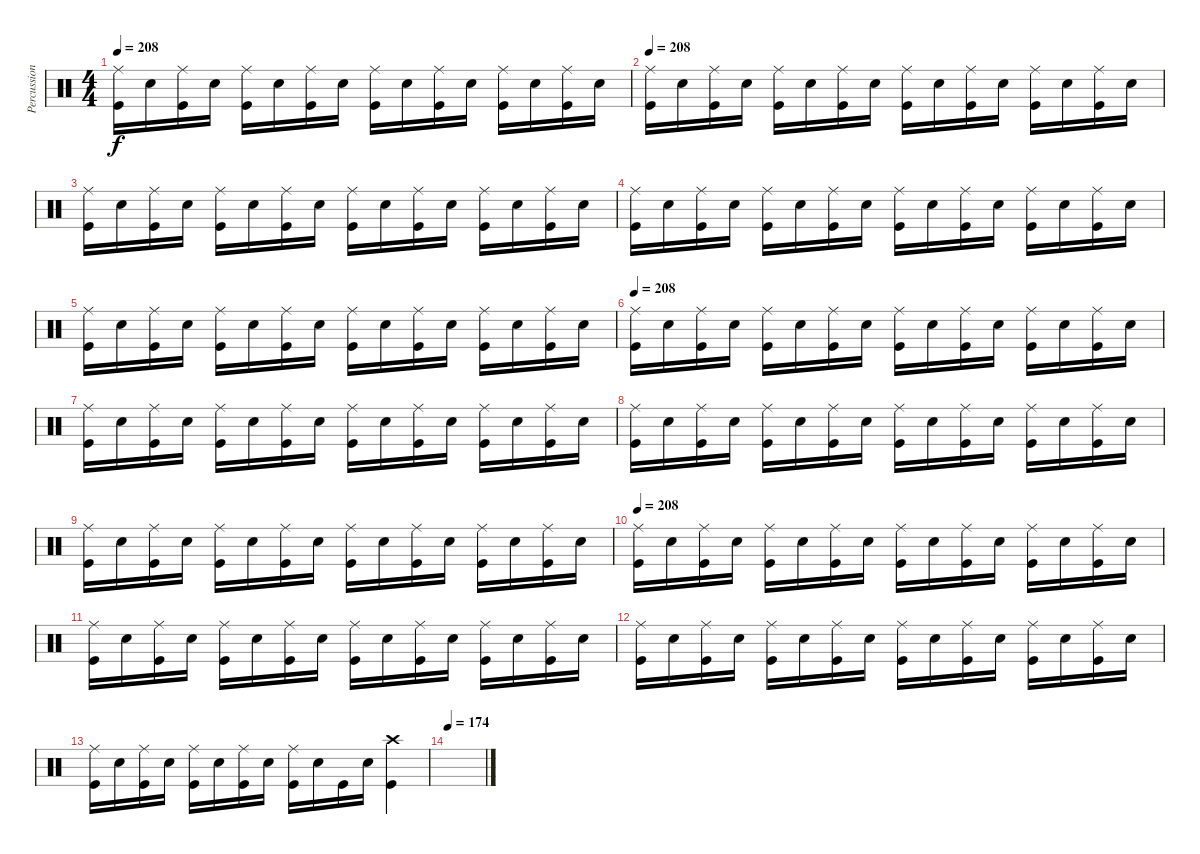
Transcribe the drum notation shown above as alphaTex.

\track ("Percussion" "Percussion") {instrument percussion}
\staff {score}
\articulation defaults
\ts (4 4)
\tempo 208
\clef neutral
\ks c
("Ride (middle)" "Kick (hit)").16{dy f} "Electric Snare (hit)".16 ("Ride (middle)" "Kick (hit)").16 "Electric Snare (hit)".16 ("Ride (middle)" "Kick (hit)").16 "Electric Snare (hit)".16 ("Ride (middle)" "Kick (hit)").16 "Electric Snare (hit)".16 ("Ride (middle)" "Kick (hit)").16 "Electric Snare (hit)".16 ("Ride (middle)" "Kick (hit)").16 "Electric Snare (hit)".16 ("Ride (middle)" "Kick (hit)").16 "Electric Snare (hit)".16 ("Ride (middle)" "Kick (hit)").16 "Electric Snare (hit)".16 |
\tempo 208
("Ride (middle)" "Kick (hit)").16 "Electric Snare (hit)".16 ("Ride (middle)" "Kick (hit)").16 "Electric Snare (hit)".16 ("Ride (middle)" "Kick (hit)").16 "Electric Snare (hit)".16 ("Ride (middle)" "Kick (hit)").16 "Electric Snare (hit)".16 ("Ride (middle)" "Kick (hit)").16 "Electric Snare (hit)".16 ("Ride (middle)" "Kick (hit)").16 "Electric Snare (hit)".16 ("Ride (middle)" "Kick (hit)").16 "Electric Snare (hit)".16 ("Ride (middle)" "Kick (hit)").16 "Electric Snare (hit)".16 |
("Ride (middle)" "Kick (hit)").16 "Electric Snare (hit)".16 ("Ride (middle)" "Kick (hit)").16 "Electric Snare (hit)".16 ("Ride (middle)" "Kick (hit)").16 "Electric Snare (hit)".16 ("Ride (middle)" "Kick (hit)").16 "Electric Snare (hit)".16 ("Ride (middle)" "Kick (hit)").16 "Electric Snare (hit)".16 ("Ride (middle)" "Kick (hit)").16 "Electric Snare (hit)".16 ("Ride (middle)" "Kick (hit)").16 "Electric Snare (hit)".16 ("Ride (middle)" "Kick (hit)").16 "Electric Snare (hit)".16 |
("Ride (middle)" "Kick (hit)").16 "Electric Snare (hit)".16 ("Ride (middle)" "Kick (hit)").16 "Electric Snare (hit)".16 ("Ride (middle)" "Kick (hit)").16 "Electric Snare (hit)".16 ("Ride (middle)" "Kick (hit)").16 "Electric Snare (hit)".16 ("Ride (middle)" "Kick (hit)").16 "Electric Snare (hit)".16 ("Ride (middle)" "Kick (hit)").16 "Electric Snare (hit)".16 ("Ride (middle)" "Kick (hit)").16 "Electric Snare (hit)".16 ("Ride (middle)" "Kick (hit)").16 "Electric Snare (hit)".16 |
("Ride (middle)" "Kick (hit)").16 "Electric Snare (hit)".16 ("Ride (middle)" "Kick (hit)").16 "Electric Snare (hit)".16 ("Ride (middle)" "Kick (hit)").16 "Electric Snare (hit)".16 ("Ride (middle)" "Kick (hit)").16 "Electric Snare (hit)".16 ("Ride (middle)" "Kick (hit)").16 "Electric Snare (hit)".16 ("Ride (middle)" "Kick (hit)").16 "Electric Snare (hit)".16 ("Ride (middle)" "Kick (hit)").16 "Electric Snare (hit)".16 ("Ride (middle)" "Kick (hit)").16 "Electric Snare (hit)".16 |
\tempo 208
("Ride (middle)" "Kick (hit)").16 "Electric Snare (hit)".16 ("Ride (middle)" "Kick (hit)").16 "Electric Snare (hit)".16 ("Ride (middle)" "Kick (hit)").16 "Electric Snare (hit)".16 ("Ride (middle)" "Kick (hit)").16 "Electric Snare (hit)".16 ("Ride (middle)" "Kick (hit)").16 "Electric Snare (hit)".16 ("Ride (middle)" "Kick (hit)").16 "Electric Snare (hit)".16 ("Ride (middle)" "Kick (hit)").16 "Electric Snare (hit)".16 ("Ride (middle)" "Kick (hit)").16 "Electric Snare (hit)".16 |
("Ride (middle)" "Kick (hit)").16 "Electric Snare (hit)".16 ("Ride (middle)" "Kick (hit)").16 "Electric Snare (hit)".16 ("Ride (middle)" "Kick (hit)").16 "Electric Snare (hit)".16 ("Ride (middle)" "Kick (hit)").16 "Electric Snare (hit)".16 ("Ride (middle)" "Kick (hit)").16 "Electric Snare (hit)".16 ("Ride (middle)" "Kick (hit)").16 "Electric Snare (hit)".16 ("Ride (middle)" "Kick (hit)").16 "Electric Snare (hit)".16 ("Ride (middle)" "Kick (hit)").16 "Electric Snare (hit)".16 |
("Ride (middle)" "Kick (hit)").16 "Electric Snare (hit)".16 ("Ride (middle)" "Kick (hit)").16 "Electric Snare (hit)".16 ("Ride (middle)" "Kick (hit)").16 "Electric Snare (hit)".16 ("Ride (middle)" "Kick (hit)").16 "Electric Snare (hit)".16 ("Ride (middle)" "Kick (hit)").16 "Electric Snare (hit)".16 ("Ride (middle)" "Kick (hit)").16 "Electric Snare (hit)".16 ("Ride (middle)" "Kick (hit)").16 "Electric Snare (hit)".16 ("Ride (middle)" "Kick (hit)").16 "Electric Snare (hit)".16 |
("Ride (middle)" "Kick (hit)").16 "Electric Snare (hit)".16 ("Ride (middle)" "Kick (hit)").16 "Electric Snare (hit)".16 ("Ride (middle)" "Kick (hit)").16 "Electric Snare (hit)".16 ("Ride (middle)" "Kick (hit)").16 "Electric Snare (hit)".16 ("Ride (middle)" "Kick (hit)").16 "Electric Snare (hit)".16 ("Ride (middle)" "Kick (hit)").16 "Electric Snare (hit)".16 ("Ride (middle)" "Kick (hit)").16 "Electric Snare (hit)".16 ("Ride (middle)" "Kick (hit)").16 "Electric Snare (hit)".16 |
\tempo 208
("Ride (middle)" "Kick (hit)").16 "Electric Snare (hit)".16 ("Ride (middle)" "Kick (hit)").16 "Electric Snare (hit)".16 ("Ride (middle)" "Kick (hit)").16 "Electric Snare (hit)".16 ("Ride (middle)" "Kick (hit)").16 "Electric Snare (hit)".16 ("Ride (middle)" "Kick (hit)").16 "Electric Snare (hit)".16 ("Ride (middle)" "Kick (hit)").16 "Electric Snare (hit)".16 ("Ride (middle)" "Kick (hit)").16 "Electric Snare (hit)".16 ("Ride (middle)" "Kick (hit)").16 "Electric Snare (hit)".16 |
("Ride (middle)" "Kick (hit)").16 "Electric Snare (hit)".16 ("Ride (middle)" "Kick (hit)").16 "Electric Snare (hit)".16 ("Ride (middle)" "Kick (hit)").16 "Electric Snare (hit)".16 ("Ride (middle)" "Kick (hit)").16 "Electric Snare (hit)".16 ("Ride (middle)" "Kick (hit)").16 "Electric Snare (hit)".16 ("Ride (middle)" "Kick (hit)").16 "Electric Snare (hit)".16 ("Ride (middle)" "Kick (hit)").16 "Electric Snare (hit)".16 ("Ride (middle)" "Kick (hit)").16 "Electric Snare (hit)".16 |
("Ride (middle)" "Kick (hit)").16 "Electric Snare (hit)".16 ("Ride (middle)" "Kick (hit)").16 "Electric Snare (hit)".16 ("Ride (middle)" "Kick (hit)").16 "Electric Snare (hit)".16 ("Ride (middle)" "Kick (hit)").16 "Electric Snare (hit)".16 ("Ride (middle)" "Kick (hit)").16 "Electric Snare (hit)".16 ("Ride (middle)" "Kick (hit)").16 "Electric Snare (hit)".16 ("Ride (middle)" "Kick (hit)").16 "Electric Snare (hit)".16 ("Ride (middle)" "Kick (hit)").16 "Electric Snare (hit)".16 |
("Ride (middle)" "Kick (hit)").16 "Electric Snare (hit)".16 ("Ride (middle)" "Kick (hit)").16 "Electric Snare (hit)".16 ("Ride (middle)" "Kick (hit)").16 "Electric Snare (hit)".16 ("Ride (middle)" "Kick (hit)").16 "Electric Snare (hit)".16 ("Ride (middle)" "Kick (hit)").16 "Electric Snare (hit)".16 "Kick (hit)".16 "Electric Snare (hit)".16 ("Crash high (hit)" "Kick (hit)").4 |
\section ("" "")
\tempo 174
